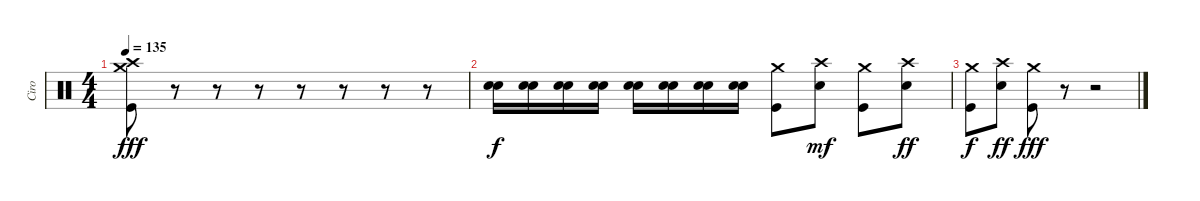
\track ("Ciro" "Ciro") {instrument percussion}
\staff {score}
\articulation defaults
\ts (4 4)
\tempo 135
\clef neutral
\ks c
("Crash high (hit)" "Crash medium (hit)" "Kick (hit)").8{dy fff} r.8 r.8 r.8 r.8 r.8 r.8 r.8 |
("Electric Snare (hit)" "Snare (hit) 2").16{dy f} ("Electric Snare (hit)" "Snare (hit) 2").16 ("Electric Snare (hit)" "Snare (hit) 2").16 ("Electric Snare (hit)" "Snare (hit) 2").16 ("Electric Snare (hit)" "Snare (hit) 2").16 ("Electric Snare (hit)" "Snare (hit) 2").16 ("Electric Snare (hit)" "Snare (hit) 2").16 ("Electric Snare (hit)" "Snare (hit) 2").16 ("Crash medium (hit)" "Kick (hit)").8 ("Crash high (hit)" "Electric Snare (hit)").8{dy mf} ("Crash medium (hit)" "Kick (hit)").8 ("Crash high (hit)" "Electric Snare (hit)").8{dy ff} |
("Crash medium (hit)" "Kick (hit)").8{dy f} ("Crash high (hit)" "Electric Snare (hit)").8{dy ff} ("Crash medium (hit)" "Kick (hit)").8{dy fff} r.8 r.2
